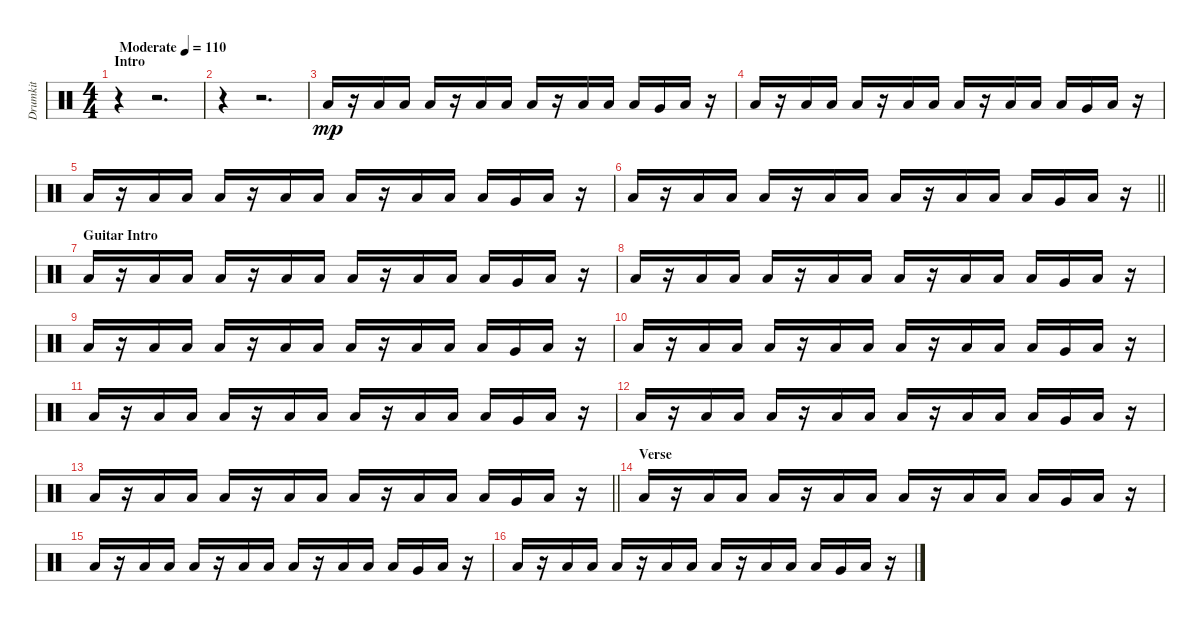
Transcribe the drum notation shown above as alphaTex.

\track ("Drumkit" "Drumkit") {instrument percussion}
\staff {score}
\articulation defaults
\ts (4 4)
\section ("" "Intro")
\tempo (110 "Moderate")
\clef neutral
\ks c
r.4{dy mp} r.2{d} |
r.4 r.2{d} |
"Low Tom (hit)".16 r.16 "Low Tom (hit)".16 "Low Tom (hit)".16 "Low Tom (hit)".16 r.16 "Low Tom (hit)".16 "Low Tom (hit)".16 "Low Tom (hit)".16 r.16 "Low Tom (hit)".16 "Low Tom (hit)".16 "Low Tom (hit)".16 "Very Low Tom (hit)".16 "Low Tom (hit)".16 r.16 |
"Low Tom (hit)".16 r.16 "Low Tom (hit)".16 "Low Tom (hit)".16 "Low Tom (hit)".16 r.16 "Low Tom (hit)".16 "Low Tom (hit)".16 "Low Tom (hit)".16 r.16 "Low Tom (hit)".16 "Low Tom (hit)".16 "Low Tom (hit)".16 "Very Low Tom (hit)".16 "Low Tom (hit)".16 r.16 |
"Low Tom (hit)".16 r.16 "Low Tom (hit)".16 "Low Tom (hit)".16 "Low Tom (hit)".16 r.16 "Low Tom (hit)".16 "Low Tom (hit)".16 "Low Tom (hit)".16 r.16 "Low Tom (hit)".16 "Low Tom (hit)".16 "Low Tom (hit)".16 "Very Low Tom (hit)".16 "Low Tom (hit)".16 r.16 |
\barLineRight lightlight "Low Tom (hit)".16
r.16 "Low Tom (hit)".16 "Low Tom (hit)".16 "Low Tom (hit)".16 r.16 "Low Tom (hit)".16 "Low Tom (hit)".16 "Low Tom (hit)".16 r.16 "Low Tom (hit)".16 "Low Tom (hit)".16 "Low Tom (hit)".16 "Very Low Tom (hit)".16 "Low Tom (hit)".16 r.16 |
\section ("" "Guitar Intro")
"Low Tom (hit)".16 r.16 "Low Tom (hit)".16 "Low Tom (hit)".16 "Low Tom (hit)".16 r.16 "Low Tom (hit)".16 "Low Tom (hit)".16 "Low Tom (hit)".16 r.16 "Low Tom (hit)".16 "Low Tom (hit)".16 "Low Tom (hit)".16 "Very Low Tom (hit)".16 "Low Tom (hit)".16 r.16 |
"Low Tom (hit)".16 r.16 "Low Tom (hit)".16 "Low Tom (hit)".16 "Low Tom (hit)".16 r.16 "Low Tom (hit)".16 "Low Tom (hit)".16 "Low Tom (hit)".16 r.16 "Low Tom (hit)".16 "Low Tom (hit)".16 "Low Tom (hit)".16 "Very Low Tom (hit)".16 "Low Tom (hit)".16 r.16 |
"Low Tom (hit)".16 r.16 "Low Tom (hit)".16 "Low Tom (hit)".16 "Low Tom (hit)".16 r.16 "Low Tom (hit)".16 "Low Tom (hit)".16 "Low Tom (hit)".16 r.16 "Low Tom (hit)".16 "Low Tom (hit)".16 "Low Tom (hit)".16 "Very Low Tom (hit)".16 "Low Tom (hit)".16 r.16 |
"Low Tom (hit)".16 r.16 "Low Tom (hit)".16 "Low Tom (hit)".16 "Low Tom (hit)".16 r.16 "Low Tom (hit)".16 "Low Tom (hit)".16 "Low Tom (hit)".16 r.16 "Low Tom (hit)".16 "Low Tom (hit)".16 "Low Tom (hit)".16 "Very Low Tom (hit)".16 "Low Tom (hit)".16 r.16 |
"Low Tom (hit)".16 r.16 "Low Tom (hit)".16 "Low Tom (hit)".16 "Low Tom (hit)".16 r.16 "Low Tom (hit)".16 "Low Tom (hit)".16 "Low Tom (hit)".16 r.16 "Low Tom (hit)".16 "Low Tom (hit)".16 "Low Tom (hit)".16 "Very Low Tom (hit)".16 "Low Tom (hit)".16 r.16 |
"Low Tom (hit)".16 r.16 "Low Tom (hit)".16 "Low Tom (hit)".16 "Low Tom (hit)".16 r.16 "Low Tom (hit)".16 "Low Tom (hit)".16 "Low Tom (hit)".16 r.16 "Low Tom (hit)".16 "Low Tom (hit)".16 "Low Tom (hit)".16 "Very Low Tom (hit)".16 "Low Tom (hit)".16 r.16 |
\barLineRight lightlight "Low Tom (hit)".16
r.16 "Low Tom (hit)".16 "Low Tom (hit)".16 "Low Tom (hit)".16 r.16 "Low Tom (hit)".16 "Low Tom (hit)".16 "Low Tom (hit)".16 r.16 "Low Tom (hit)".16 "Low Tom (hit)".16 "Low Tom (hit)".16 "Very Low Tom (hit)".16 "Low Tom (hit)".16 r.16 |
\section ("" "Verse")
"Low Tom (hit)".16 r.16 "Low Tom (hit)".16 "Low Tom (hit)".16 "Low Tom (hit)".16 r.16 "Low Tom (hit)".16 "Low Tom (hit)".16 "Low Tom (hit)".16 r.16 "Low Tom (hit)".16 "Low Tom (hit)".16 "Low Tom (hit)".16 "Very Low Tom (hit)".16 "Low Tom (hit)".16 r.16 |
"Low Tom (hit)".16 r.16 "Low Tom (hit)".16 "Low Tom (hit)".16 "Low Tom (hit)".16 r.16 "Low Tom (hit)".16 "Low Tom (hit)".16 "Low Tom (hit)".16 r.16 "Low Tom (hit)".16 "Low Tom (hit)".16 "Low Tom (hit)".16 "Very Low Tom (hit)".16 "Low Tom (hit)".16 r.16 |
"Low Tom (hit)".16 r.16 "Low Tom (hit)".16 "Low Tom (hit)".16 "Low Tom (hit)".16 r.16 "Low Tom (hit)".16 "Low Tom (hit)".16 "Low Tom (hit)".16 r.16 "Low Tom (hit)".16 "Low Tom (hit)".16 "Low Tom (hit)".16 "Very Low Tom (hit)".16 "Low Tom (hit)".16 r.16
